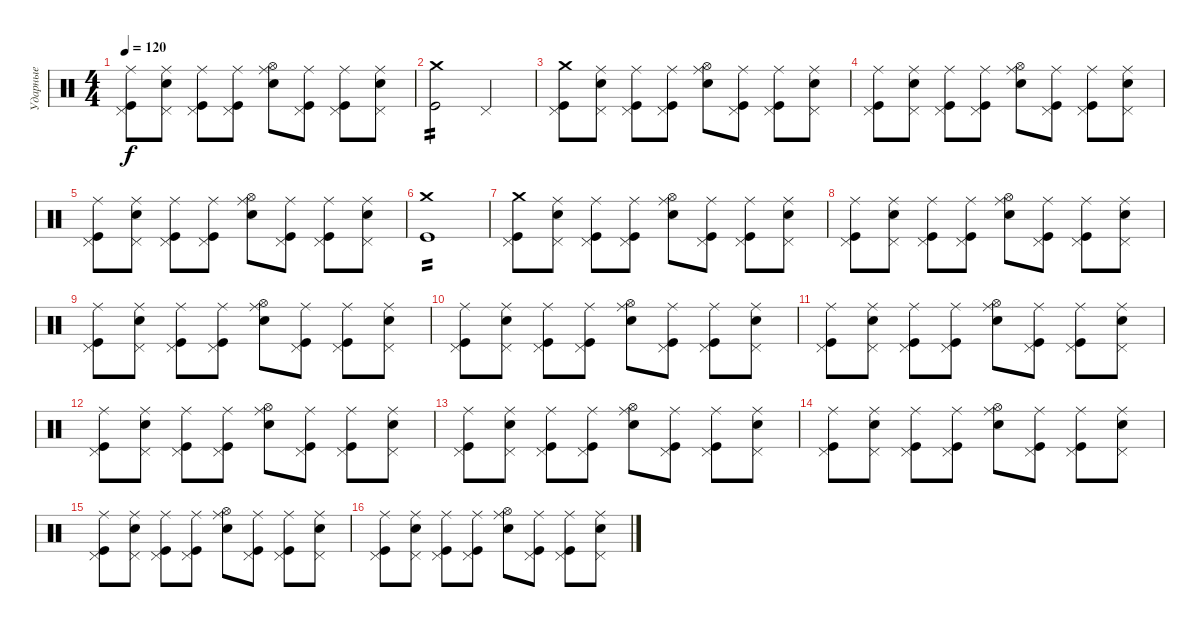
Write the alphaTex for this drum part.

\track ("Ударные" "Ударные") {solo instrument percussion}
\staff {score}
\articulation defaults
\ts (4 4)
\tempo 120
\clef neutral
\ks c
("Ride (middle)" "Pedal Hi-Hat (hit)" "Kick (hit)").8{dy f} ("Ride (middle)" "Pedal Hi-Hat (hit)" "Electric Snare (hit)").8 ("Ride (middle)" "Pedal Hi-Hat (hit)" "Kick (hit)").8 ("Ride (middle)" "Pedal Hi-Hat (hit)" "Kick (hit)").8 ("Ride (middle)" "Hi-Hat (open)" "Electric Snare (hit)").8 ("Ride (middle)" "Pedal Hi-Hat (hit)" "Kick (hit)").8 ("Ride (middle)" "Pedal Hi-Hat (hit)" "Kick (hit)").8 ("Ride (middle)" "Pedal Hi-Hat (hit)" "Electric Snare (hit)").8 |
("Crash medium (hit)" "Kick (hit)").2{tp 2} "Pedal Hi-Hat (hit)".2 |
("Crash medium (hit)" "Pedal Hi-Hat (hit)" "Kick (hit)").8 ("Ride (middle)" "Pedal Hi-Hat (hit)" "Electric Snare (hit)").8 ("Ride (middle)" "Pedal Hi-Hat (hit)" "Kick (hit)").8 ("Ride (middle)" "Pedal Hi-Hat (hit)" "Kick (hit)").8 ("Ride (middle)" "Hi-Hat (open)" "Electric Snare (hit)").8 ("Ride (middle)" "Pedal Hi-Hat (hit)" "Kick (hit)").8 ("Ride (middle)" "Pedal Hi-Hat (hit)" "Kick (hit)").8 ("Ride (middle)" "Pedal Hi-Hat (hit)" "Electric Snare (hit)").8 |
("Ride (middle)" "Pedal Hi-Hat (hit)" "Kick (hit)").8 ("Ride (middle)" "Pedal Hi-Hat (hit)" "Electric Snare (hit)").8 ("Ride (middle)" "Pedal Hi-Hat (hit)" "Kick (hit)").8 ("Ride (middle)" "Pedal Hi-Hat (hit)" "Kick (hit)").8 ("Ride (middle)" "Hi-Hat (open)" "Electric Snare (hit)").8 ("Ride (middle)" "Pedal Hi-Hat (hit)" "Kick (hit)").8 ("Ride (middle)" "Pedal Hi-Hat (hit)" "Kick (hit)").8 ("Ride (middle)" "Pedal Hi-Hat (hit)" "Electric Snare (hit)").8 |
("Ride (middle)" "Pedal Hi-Hat (hit)" "Kick (hit)").8 ("Ride (middle)" "Pedal Hi-Hat (hit)" "Electric Snare (hit)").8 ("Ride (middle)" "Pedal Hi-Hat (hit)" "Kick (hit)").8 ("Ride (middle)" "Pedal Hi-Hat (hit)" "Kick (hit)").8 ("Ride (middle)" "Hi-Hat (open)" "Electric Snare (hit)").8 ("Ride (middle)" "Pedal Hi-Hat (hit)" "Kick (hit)").8 ("Ride (middle)" "Pedal Hi-Hat (hit)" "Kick (hit)").8 ("Ride (middle)" "Pedal Hi-Hat (hit)" "Electric Snare (hit)").8 |
("Crash medium (hit)" "Kick (hit)").1{tp 2} |
("Crash medium (hit)" "Pedal Hi-Hat (hit)" "Kick (hit)").8 ("Ride (middle)" "Pedal Hi-Hat (hit)" "Electric Snare (hit)").8 ("Ride (middle)" "Pedal Hi-Hat (hit)" "Kick (hit)").8 ("Ride (middle)" "Pedal Hi-Hat (hit)" "Kick (hit)").8 ("Ride (middle)" "Hi-Hat (open)" "Electric Snare (hit)").8 ("Ride (middle)" "Pedal Hi-Hat (hit)" "Kick (hit)").8 ("Ride (middle)" "Pedal Hi-Hat (hit)" "Kick (hit)").8 ("Ride (middle)" "Pedal Hi-Hat (hit)" "Electric Snare (hit)").8 |
("Ride (middle)" "Pedal Hi-Hat (hit)" "Kick (hit)").8 ("Ride (middle)" "Pedal Hi-Hat (hit)" "Electric Snare (hit)").8 ("Ride (middle)" "Pedal Hi-Hat (hit)" "Kick (hit)").8 ("Ride (middle)" "Pedal Hi-Hat (hit)" "Kick (hit)").8 ("Ride (middle)" "Hi-Hat (open)" "Electric Snare (hit)").8 ("Ride (middle)" "Pedal Hi-Hat (hit)" "Kick (hit)").8 ("Ride (middle)" "Pedal Hi-Hat (hit)" "Kick (hit)").8 ("Ride (middle)" "Pedal Hi-Hat (hit)" "Electric Snare (hit)").8 |
("Ride (middle)" "Pedal Hi-Hat (hit)" "Kick (hit)").8 ("Ride (middle)" "Pedal Hi-Hat (hit)" "Electric Snare (hit)").8 ("Ride (middle)" "Pedal Hi-Hat (hit)" "Kick (hit)").8 ("Ride (middle)" "Pedal Hi-Hat (hit)" "Kick (hit)").8 ("Ride (middle)" "Hi-Hat (open)" "Electric Snare (hit)").8 ("Ride (middle)" "Pedal Hi-Hat (hit)" "Kick (hit)").8 ("Ride (middle)" "Pedal Hi-Hat (hit)" "Kick (hit)").8 ("Ride (middle)" "Pedal Hi-Hat (hit)" "Electric Snare (hit)").8 |
("Ride (middle)" "Pedal Hi-Hat (hit)" "Kick (hit)").8 ("Ride (middle)" "Pedal Hi-Hat (hit)" "Electric Snare (hit)").8 ("Ride (middle)" "Pedal Hi-Hat (hit)" "Kick (hit)").8 ("Ride (middle)" "Pedal Hi-Hat (hit)" "Kick (hit)").8 ("Ride (middle)" "Hi-Hat (open)" "Electric Snare (hit)").8 ("Ride (middle)" "Pedal Hi-Hat (hit)" "Kick (hit)").8 ("Ride (middle)" "Pedal Hi-Hat (hit)" "Kick (hit)").8 ("Ride (middle)" "Pedal Hi-Hat (hit)" "Electric Snare (hit)").8 |
("Ride (middle)" "Pedal Hi-Hat (hit)" "Kick (hit)").8 ("Ride (middle)" "Pedal Hi-Hat (hit)" "Electric Snare (hit)").8 ("Ride (middle)" "Pedal Hi-Hat (hit)" "Kick (hit)").8 ("Ride (middle)" "Pedal Hi-Hat (hit)" "Kick (hit)").8 ("Ride (middle)" "Hi-Hat (open)" "Electric Snare (hit)").8 ("Ride (middle)" "Pedal Hi-Hat (hit)" "Kick (hit)").8 ("Ride (middle)" "Pedal Hi-Hat (hit)" "Kick (hit)").8 ("Ride (middle)" "Pedal Hi-Hat (hit)" "Electric Snare (hit)").8 |
("Ride (middle)" "Pedal Hi-Hat (hit)" "Kick (hit)").8 ("Ride (middle)" "Pedal Hi-Hat (hit)" "Electric Snare (hit)").8 ("Ride (middle)" "Pedal Hi-Hat (hit)" "Kick (hit)").8 ("Ride (middle)" "Pedal Hi-Hat (hit)" "Kick (hit)").8 ("Ride (middle)" "Hi-Hat (open)" "Electric Snare (hit)").8 ("Ride (middle)" "Pedal Hi-Hat (hit)" "Kick (hit)").8 ("Ride (middle)" "Pedal Hi-Hat (hit)" "Kick (hit)").8 ("Ride (middle)" "Pedal Hi-Hat (hit)" "Electric Snare (hit)").8 |
("Ride (middle)" "Pedal Hi-Hat (hit)" "Kick (hit)").8 ("Ride (middle)" "Pedal Hi-Hat (hit)" "Electric Snare (hit)").8 ("Ride (middle)" "Pedal Hi-Hat (hit)" "Kick (hit)").8 ("Ride (middle)" "Pedal Hi-Hat (hit)" "Kick (hit)").8 ("Ride (middle)" "Hi-Hat (open)" "Electric Snare (hit)").8 ("Ride (middle)" "Pedal Hi-Hat (hit)" "Kick (hit)").8 ("Ride (middle)" "Pedal Hi-Hat (hit)" "Kick (hit)").8 ("Ride (middle)" "Pedal Hi-Hat (hit)" "Electric Snare (hit)").8 |
("Ride (middle)" "Pedal Hi-Hat (hit)" "Kick (hit)").8 ("Ride (middle)" "Pedal Hi-Hat (hit)" "Electric Snare (hit)").8 ("Ride (middle)" "Pedal Hi-Hat (hit)" "Kick (hit)").8 ("Ride (middle)" "Pedal Hi-Hat (hit)" "Kick (hit)").8 ("Ride (middle)" "Hi-Hat (open)" "Electric Snare (hit)").8 ("Ride (middle)" "Pedal Hi-Hat (hit)" "Kick (hit)").8 ("Ride (middle)" "Pedal Hi-Hat (hit)" "Kick (hit)").8 ("Ride (middle)" "Pedal Hi-Hat (hit)" "Electric Snare (hit)").8 |
("Ride (middle)" "Pedal Hi-Hat (hit)" "Kick (hit)").8 ("Ride (middle)" "Pedal Hi-Hat (hit)" "Electric Snare (hit)").8 ("Ride (middle)" "Pedal Hi-Hat (hit)" "Kick (hit)").8 ("Ride (middle)" "Pedal Hi-Hat (hit)" "Kick (hit)").8 ("Ride (middle)" "Hi-Hat (open)" "Electric Snare (hit)").8 ("Ride (middle)" "Pedal Hi-Hat (hit)" "Kick (hit)").8 ("Ride (middle)" "Pedal Hi-Hat (hit)" "Kick (hit)").8 ("Ride (middle)" "Pedal Hi-Hat (hit)" "Electric Snare (hit)").8 |
("Ride (middle)" "Pedal Hi-Hat (hit)" "Kick (hit)").8 ("Ride (middle)" "Pedal Hi-Hat (hit)" "Electric Snare (hit)").8 ("Ride (middle)" "Pedal Hi-Hat (hit)" "Kick (hit)").8 ("Ride (middle)" "Pedal Hi-Hat (hit)" "Kick (hit)").8 ("Ride (middle)" "Hi-Hat (open)" "Electric Snare (hit)").8 ("Ride (middle)" "Pedal Hi-Hat (hit)" "Kick (hit)").8 ("Ride (middle)" "Pedal Hi-Hat (hit)" "Kick (hit)").8 ("Ride (middle)" "Pedal Hi-Hat (hit)" "Electric Snare (hit)").8
